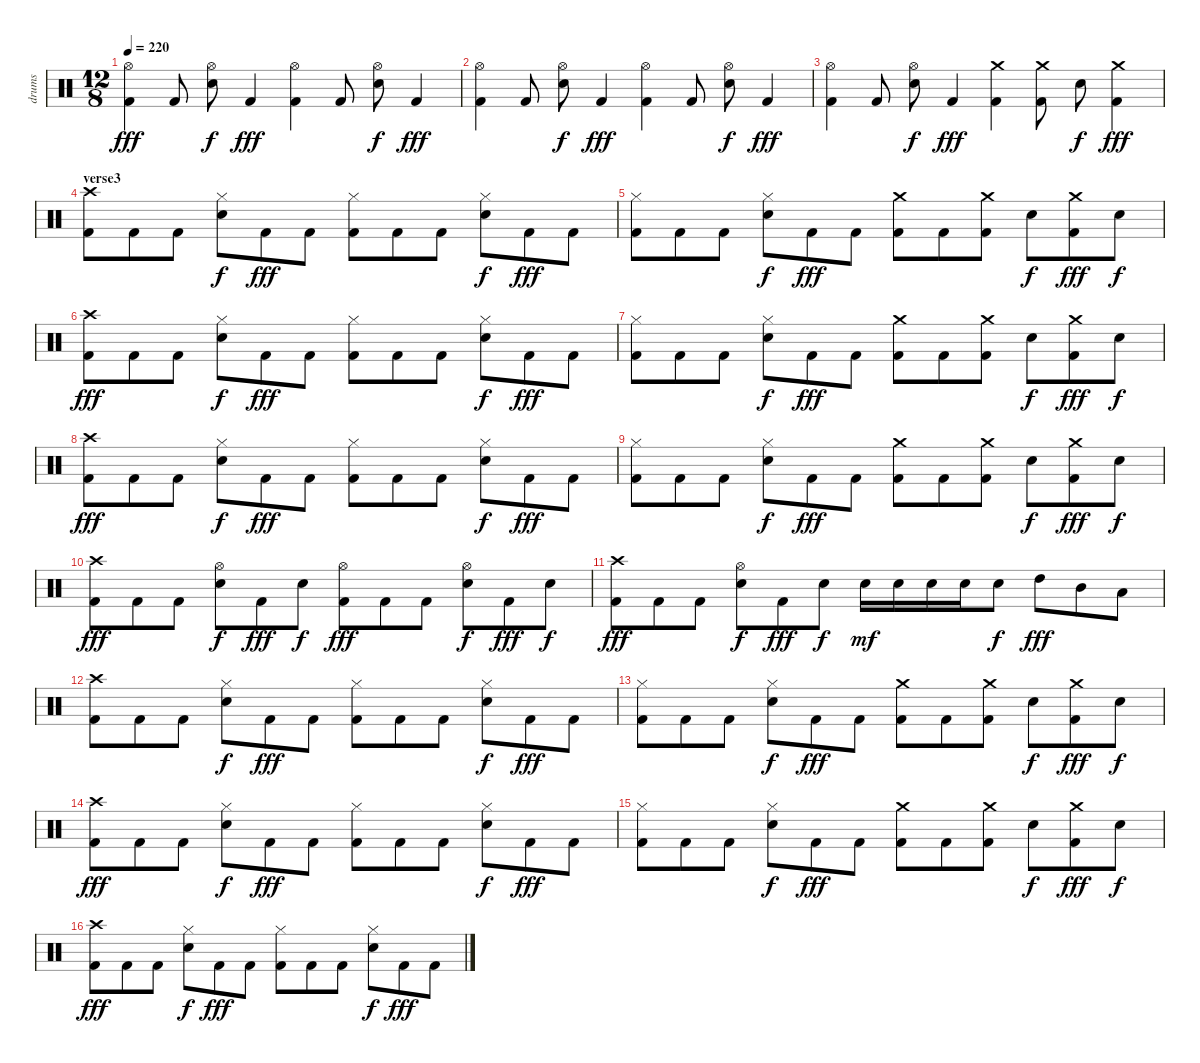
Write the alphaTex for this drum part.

\track ("drums" "drums") {instrument percussion}
\staff {score}
\articulation defaults
\ts (12 8)
\tempo 220
\clef neutral
\ks c
("Hi-Hat (open)" "Kick (hit) 2").4{dy fff} "Kick (hit) 2".8 ("Hi-Hat (open)" "Snare (hit) 2").8{dy f} "Kick (hit) 2".4{dy fff} ("Hi-Hat (open)" "Kick (hit) 2").4 "Kick (hit) 2".8 ("Hi-Hat (open)" "Snare (hit) 2").8{dy f} "Kick (hit) 2".4{dy fff} |
("Hi-Hat (open)" "Kick (hit) 2").4 "Kick (hit) 2".8 ("Hi-Hat (open)" "Snare (hit) 2").8{dy f} "Kick (hit) 2".4{dy fff} ("Hi-Hat (open)" "Kick (hit) 2").4 "Kick (hit) 2".8 ("Hi-Hat (open)" "Snare (hit) 2").8{dy f} "Kick (hit) 2".4{dy fff} |
("Hi-Hat (open)" "Kick (hit) 2").4 "Kick (hit) 2".8 ("Hi-Hat (open)" "Snare (hit) 2").8{dy f} "Kick (hit) 2".4{dy fff} ("Crash medium (hit)" "Kick (hit) 2").4 ("Crash medium (hit)" "Kick (hit) 2").8 "Snare (hit) 2".8{dy f} ("Crash medium (hit)" "Kick (hit) 2").4{dy fff} |
\section ("" "verse3")
("Crash high (hit)" "Kick (hit) 2").8 "Kick (hit) 2".8 "Kick (hit) 2".8 ("Hi-Hat (closed)" "Snare (hit) 2").8{dy f} "Kick (hit) 2".8{dy fff} "Kick (hit) 2".8 ("Hi-Hat (closed)" "Kick (hit) 2").8 "Kick (hit) 2".8 "Kick (hit) 2".8 ("Hi-Hat (closed)" "Snare (hit) 2").8{dy f} "Kick (hit) 2".8{dy fff} "Kick (hit) 2".8 |
("Hi-Hat (closed)" "Kick (hit) 2").8 "Kick (hit) 2".8 "Kick (hit) 2".8 ("Hi-Hat (closed)" "Snare (hit) 2").8{dy f} "Kick (hit) 2".8{dy fff} "Kick (hit) 2".8 ("Crash medium (hit)" "Kick (hit) 2").8 "Kick (hit) 2".8 ("Crash medium (hit)" "Kick (hit) 2").8 "Snare (hit) 2".8{dy f} ("Crash medium (hit)" "Kick (hit) 2").8{dy fff} "Snare (hit) 2".8{dy f} |
("Crash high (hit)" "Kick (hit) 2").8{dy fff} "Kick (hit) 2".8 "Kick (hit) 2".8 ("Hi-Hat (closed)" "Snare (hit) 2").8{dy f} "Kick (hit) 2".8{dy fff} "Kick (hit) 2".8 ("Hi-Hat (closed)" "Kick (hit) 2").8 "Kick (hit) 2".8 "Kick (hit) 2".8 ("Hi-Hat (closed)" "Snare (hit) 2").8{dy f} "Kick (hit) 2".8{dy fff} "Kick (hit) 2".8 |
("Hi-Hat (closed)" "Kick (hit) 2").8 "Kick (hit) 2".8 "Kick (hit) 2".8 ("Hi-Hat (closed)" "Snare (hit) 2").8{dy f} "Kick (hit) 2".8{dy fff} "Kick (hit) 2".8 ("Crash medium (hit)" "Kick (hit) 2").8 "Kick (hit) 2".8 ("Crash medium (hit)" "Kick (hit) 2").8 "Snare (hit) 2".8{dy f} ("Crash medium (hit)" "Kick (hit) 2").8{dy fff} "Snare (hit) 2".8{dy f} |
("Crash high (hit)" "Kick (hit) 2").8{dy fff} "Kick (hit) 2".8 "Kick (hit) 2".8 ("Hi-Hat (closed)" "Snare (hit) 2").8{dy f} "Kick (hit) 2".8{dy fff} "Kick (hit) 2".8 ("Hi-Hat (closed)" "Kick (hit) 2").8 "Kick (hit) 2".8 "Kick (hit) 2".8 ("Hi-Hat (closed)" "Snare (hit) 2").8{dy f} "Kick (hit) 2".8{dy fff} "Kick (hit) 2".8 |
("Hi-Hat (closed)" "Kick (hit) 2").8 "Kick (hit) 2".8 "Kick (hit) 2".8 ("Hi-Hat (closed)" "Snare (hit) 2").8{dy f} "Kick (hit) 2".8{dy fff} "Kick (hit) 2".8 ("Crash medium (hit)" "Kick (hit) 2").8 "Kick (hit) 2".8 ("Crash medium (hit)" "Kick (hit) 2").8 "Snare (hit) 2".8{dy f} ("Crash medium (hit)" "Kick (hit) 2").8{dy fff} "Snare (hit) 2".8{dy f} |
("Crash high (hit)" "Kick (hit) 2").8{dy fff} "Kick (hit) 2".8 "Kick (hit) 2".8 ("Hi-Hat (open)" "Snare (hit) 2").8{dy f} "Kick (hit) 2".8{dy fff} "Snare (hit) 2".8{dy f} ("Hi-Hat (open)" "Kick (hit) 2").8{dy fff} "Kick (hit) 2".8 "Kick (hit) 2".8 ("Hi-Hat (open)" "Snare (hit) 2").8{dy f} "Kick (hit) 2".8{dy fff} "Snare (hit) 2".8{dy f} |
("Crash high (hit)" "Kick (hit) 2").8{dy fff} "Kick (hit) 2".8 "Kick (hit) 2".8 ("Hi-Hat (open)" "Snare (hit) 2").8{dy f} "Kick (hit) 2".8{dy fff} "Snare (hit) 2".8{dy f} "Snare (hit) 2".16{dy mf} "Snare (hit) 2".16 "Snare (hit) 2".16 "Snare (hit) 2".16 "Snare (hit) 2".8{dy f} "High Tom (hit)".8{dy fff} "Mid Tom (hit)".8 "Low Tom (hit)".8 |
("Crash high (hit)" "Kick (hit) 2").8 "Kick (hit) 2".8 "Kick (hit) 2".8 ("Hi-Hat (closed)" "Snare (hit) 2").8{dy f} "Kick (hit) 2".8{dy fff} "Kick (hit) 2".8 ("Hi-Hat (closed)" "Kick (hit) 2").8 "Kick (hit) 2".8 "Kick (hit) 2".8 ("Hi-Hat (closed)" "Snare (hit) 2").8{dy f} "Kick (hit) 2".8{dy fff} "Kick (hit) 2".8 |
("Hi-Hat (closed)" "Kick (hit) 2").8 "Kick (hit) 2".8 "Kick (hit) 2".8 ("Hi-Hat (closed)" "Snare (hit) 2").8{dy f} "Kick (hit) 2".8{dy fff} "Kick (hit) 2".8 ("Crash medium (hit)" "Kick (hit) 2").8 "Kick (hit) 2".8 ("Crash medium (hit)" "Kick (hit) 2").8 "Snare (hit) 2".8{dy f} ("Crash medium (hit)" "Kick (hit) 2").8{dy fff} "Snare (hit) 2".8{dy f} |
("Crash high (hit)" "Kick (hit) 2").8{dy fff} "Kick (hit) 2".8 "Kick (hit) 2".8 ("Hi-Hat (closed)" "Snare (hit) 2").8{dy f} "Kick (hit) 2".8{dy fff} "Kick (hit) 2".8 ("Hi-Hat (closed)" "Kick (hit) 2").8 "Kick (hit) 2".8 "Kick (hit) 2".8 ("Hi-Hat (closed)" "Snare (hit) 2").8{dy f} "Kick (hit) 2".8{dy fff} "Kick (hit) 2".8 |
("Hi-Hat (closed)" "Kick (hit) 2").8 "Kick (hit) 2".8 "Kick (hit) 2".8 ("Hi-Hat (closed)" "Snare (hit) 2").8{dy f} "Kick (hit) 2".8{dy fff} "Kick (hit) 2".8 ("Crash medium (hit)" "Kick (hit) 2").8 "Kick (hit) 2".8 ("Crash medium (hit)" "Kick (hit) 2").8 "Snare (hit) 2".8{dy f} ("Crash medium (hit)" "Kick (hit) 2").8{dy fff} "Snare (hit) 2".8{dy f} |
("Crash high (hit)" "Kick (hit) 2").8{dy fff} "Kick (hit) 2".8 "Kick (hit) 2".8 ("Hi-Hat (closed)" "Snare (hit) 2").8{dy f} "Kick (hit) 2".8{dy fff} "Kick (hit) 2".8 ("Hi-Hat (closed)" "Kick (hit) 2").8 "Kick (hit) 2".8 "Kick (hit) 2".8 ("Hi-Hat (closed)" "Snare (hit) 2").8{dy f} "Kick (hit) 2".8{dy fff} "Kick (hit) 2".8
